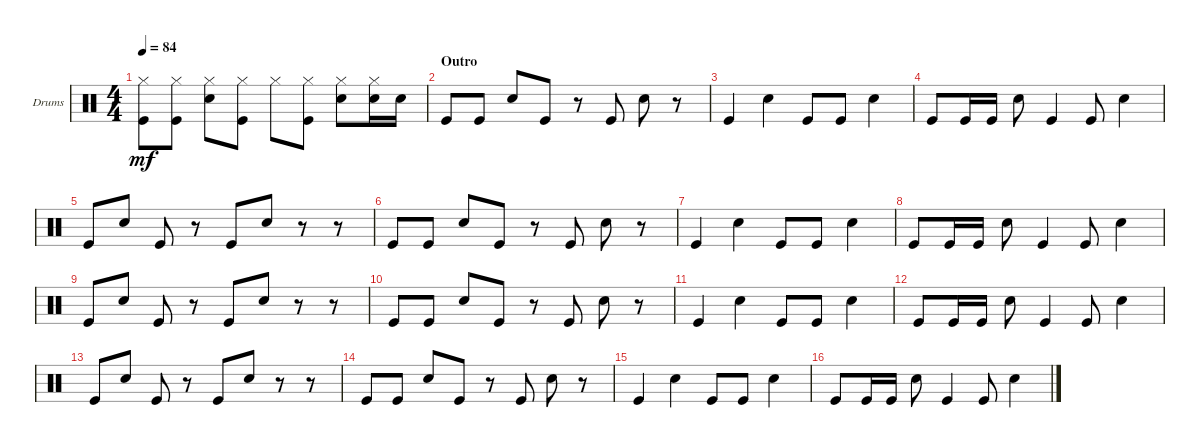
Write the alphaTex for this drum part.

\defaultSystemsLayout 4
\bracketExtendMode groupsimilarinstruments
\firstSystemTrackNameOrientation horizontal
\otherSystemsTrackNameOrientation horizontal
\track ("Drumkit" "Drums") {instrument percussion}
\staff {score}
\articulation defaults
\ts (4 4)
\tempo 84
\clef neutral
\ks c
("Hi-Hat (closed)" "Kick (hit)").8{dy mf} ("Hi-Hat (closed)" "Kick (hit)").8 ("Hi-Hat (closed)" "Snare (hit) 2").8 ("Hi-Hat (closed)" "Kick (hit)").8 "Hi-Hat (closed)".8 ("Hi-Hat (closed)" "Kick (hit)").8 ("Hi-Hat (closed)" "Snare (hit) 2").8 ("Hi-Hat (closed)" "Snare (hit) 2").16 "Snare (hit) 2".16 |
\section ("" "Outro")
"Kick (hit)".8 "Kick (hit)".8 "Snare (hit) 2".8 "Kick (hit)".8 r.8 "Kick (hit)".8 "Snare (hit) 2".8 r.8 |
"Kick (hit)".4 "Snare (hit) 2".4 "Kick (hit)".8 "Kick (hit)".8 "Snare (hit) 2".4 |
"Kick (hit)".8 "Kick (hit)".16 "Kick (hit)".16 "Snare (hit) 2".8 "Kick (hit)".4 "Kick (hit)".8 "Snare (hit) 2".4 |
"Kick (hit)".8 "Snare (hit) 2".8 "Kick (hit)".8 r.8 "Kick (hit)".8 "Snare (hit) 2".8 r.8 r.8 |
"Kick (hit)".8 "Kick (hit)".8 "Snare (hit) 2".8 "Kick (hit)".8 r.8 "Kick (hit)".8 "Snare (hit) 2".8 r.8 |
"Kick (hit)".4 "Snare (hit) 2".4 "Kick (hit)".8 "Kick (hit)".8 "Snare (hit) 2".4 |
"Kick (hit)".8 "Kick (hit)".16 "Kick (hit)".16 "Snare (hit) 2".8 "Kick (hit)".4 "Kick (hit)".8 "Snare (hit) 2".4 |
"Kick (hit)".8 "Snare (hit) 2".8 "Kick (hit)".8 r.8 "Kick (hit)".8 "Snare (hit) 2".8 r.8 r.8 |
"Kick (hit)".8 "Kick (hit)".8 "Snare (hit) 2".8 "Kick (hit)".8 r.8 "Kick (hit)".8 "Snare (hit) 2".8 r.8 |
"Kick (hit)".4 "Snare (hit) 2".4 "Kick (hit)".8 "Kick (hit)".8 "Snare (hit) 2".4 |
"Kick (hit)".8 "Kick (hit)".16 "Kick (hit)".16 "Snare (hit) 2".8 "Kick (hit)".4 "Kick (hit)".8 "Snare (hit) 2".4 |
"Kick (hit)".8 "Snare (hit) 2".8 "Kick (hit)".8 r.8 "Kick (hit)".8 "Snare (hit) 2".8 r.8 r.8 |
"Kick (hit)".8 "Kick (hit)".8 "Snare (hit) 2".8 "Kick (hit)".8 r.8 "Kick (hit)".8 "Snare (hit) 2".8 r.8 |
"Kick (hit)".4 "Snare (hit) 2".4 "Kick (hit)".8 "Kick (hit)".8 "Snare (hit) 2".4 |
"Kick (hit)".8 "Kick (hit)".16 "Kick (hit)".16 "Snare (hit) 2".8 "Kick (hit)".4 "Kick (hit)".8 "Snare (hit) 2".4
